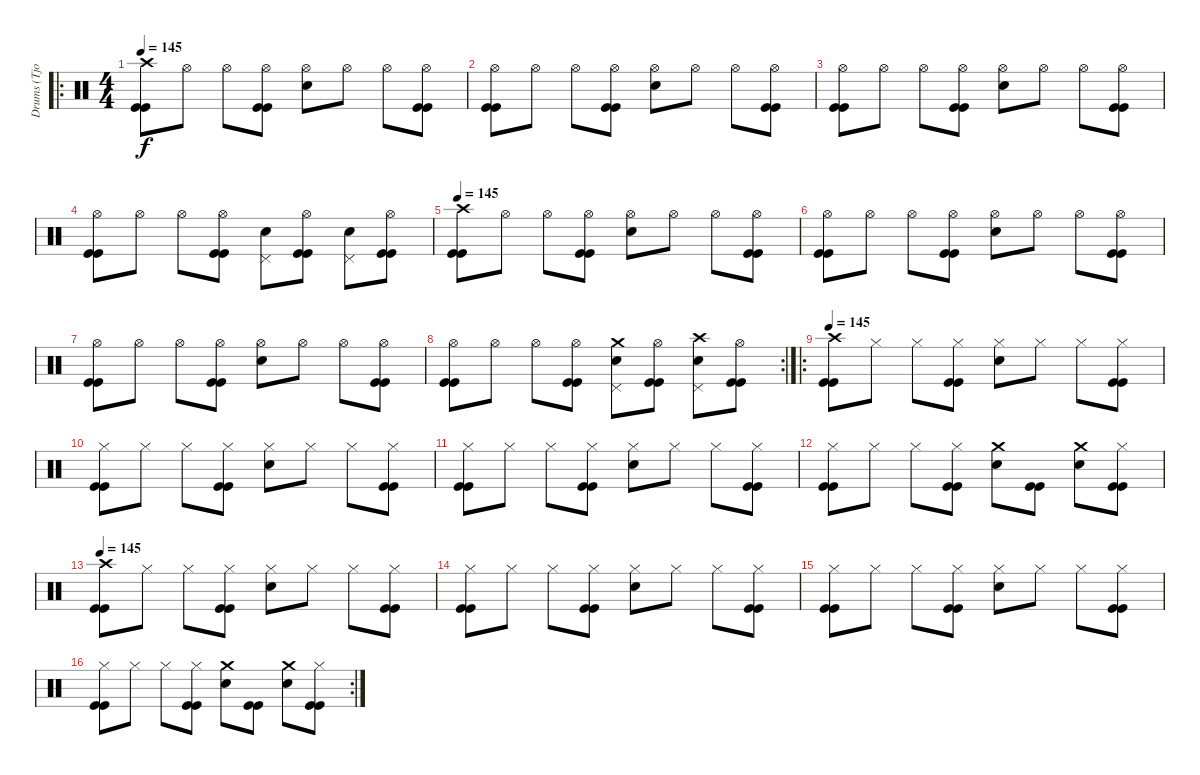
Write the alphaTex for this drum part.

\track ("Drums (Tjodalv)" "Drums (Tjo") {instrument percussion}
\staff {score}
\articulation defaults
\ro
\ts (4 4)
\tempo 145
\clef neutral
\ks c
("Crash high (hit)" "Kick (hit)" "Kick (hit)").8{dy f} "Hi-Hat (open)".8 "Hi-Hat (open)".8 ("Hi-Hat (open)" "Kick (hit)" "Kick (hit)").8 ("Snare (hit) 2" "Hi-Hat (open)").8 "Hi-Hat (open)".8 "Hi-Hat (open)".8 ("Hi-Hat (open)" "Kick (hit)" "Kick (hit)").8 |
("Hi-Hat (open)" "Kick (hit)" "Kick (hit)").8 "Hi-Hat (open)".8 "Hi-Hat (open)".8 ("Hi-Hat (open)" "Kick (hit)" "Kick (hit)").8 ("Snare (hit) 2" "Hi-Hat (open)").8 "Hi-Hat (open)".8 "Hi-Hat (open)".8 ("Hi-Hat (open)" "Kick (hit)" "Kick (hit)").8 |
("Hi-Hat (open)" "Kick (hit)" "Kick (hit)").8 "Hi-Hat (open)".8 "Hi-Hat (open)".8 ("Hi-Hat (open)" "Kick (hit)" "Kick (hit)").8 ("Snare (hit) 2" "Hi-Hat (open)").8 "Hi-Hat (open)".8 "Hi-Hat (open)".8 ("Hi-Hat (open)" "Kick (hit)" "Kick (hit)").8 |
("Hi-Hat (open)" "Kick (hit)" "Kick (hit)").8 "Hi-Hat (open)".8 "Hi-Hat (open)".8 ("Hi-Hat (open)" "Kick (hit)" "Kick (hit)").8 ("Snare (hit) 2" "Pedal Hi-Hat (hit)").8 ("Hi-Hat (open)" "Kick (hit)" "Kick (hit)").8 ("Snare (hit) 2" "Pedal Hi-Hat (hit)").8 ("Hi-Hat (open)" "Kick (hit)" "Kick (hit)").8 |
\tempo 145
("Crash high (hit)" "Kick (hit)" "Kick (hit)").8 "Hi-Hat (open)".8 "Hi-Hat (open)".8 ("Hi-Hat (open)" "Kick (hit)" "Kick (hit)").8 ("Snare (hit) 2" "Hi-Hat (open)").8 "Hi-Hat (open)".8 "Hi-Hat (open)".8 ("Hi-Hat (open)" "Kick (hit)" "Kick (hit)").8 |
("Hi-Hat (open)" "Kick (hit)" "Kick (hit)").8 "Hi-Hat (open)".8 "Hi-Hat (open)".8 ("Hi-Hat (open)" "Kick (hit)" "Kick (hit)").8 ("Snare (hit) 2" "Hi-Hat (open)").8 "Hi-Hat (open)".8 "Hi-Hat (open)".8 ("Hi-Hat (open)" "Kick (hit)" "Kick (hit)").8 |
("Hi-Hat (open)" "Kick (hit)" "Kick (hit)").8 "Hi-Hat (open)".8 "Hi-Hat (open)".8 ("Hi-Hat (open)" "Kick (hit)" "Kick (hit)").8 ("Snare (hit) 2" "Hi-Hat (open)").8 "Hi-Hat (open)".8 "Hi-Hat (open)".8 ("Hi-Hat (open)" "Kick (hit)" "Kick (hit)").8 |
\rc 2
("Hi-Hat (open)" "Kick (hit)" "Kick (hit)").8 "Hi-Hat (open)".8 "Hi-Hat (open)".8 ("Hi-Hat (open)" "Kick (hit)" "Kick (hit)").8 ("Crash medium (hit)" "Snare (hit) 2" "Pedal Hi-Hat (hit)").8 ("Hi-Hat (open)" "Kick (hit)" "Kick (hit)").8 ("Crash high (hit)" "Snare (hit) 2" "Pedal Hi-Hat (hit)").8 ("Hi-Hat (open)" "Kick (hit)" "Kick (hit)").8 |
\ro
\tempo 145
("Crash high (hit)" "Kick (hit)" "Kick (hit)").8 "Hi-Hat (closed)".8 "Hi-Hat (closed)".8 ("Hi-Hat (closed)" "Kick (hit)" "Kick (hit)").8 ("Snare (hit) 2" "Hi-Hat (closed)").8 "Hi-Hat (closed)".8 "Hi-Hat (closed)".8 ("Hi-Hat (closed)" "Kick (hit)" "Kick (hit)").8 |
("Hi-Hat (closed)" "Kick (hit)" "Kick (hit)").8 "Hi-Hat (closed)".8 "Hi-Hat (closed)".8 ("Hi-Hat (closed)" "Kick (hit)" "Kick (hit)").8 ("Snare (hit) 2" "Hi-Hat (closed)").8 "Hi-Hat (closed)".8 "Hi-Hat (closed)".8 ("Hi-Hat (closed)" "Kick (hit)" "Kick (hit)").8 |
("Hi-Hat (closed)" "Kick (hit)" "Kick (hit)").8 "Hi-Hat (closed)".8 "Hi-Hat (closed)".8 ("Hi-Hat (closed)" "Kick (hit)" "Kick (hit)").8 ("Snare (hit) 2" "Hi-Hat (closed)").8 "Hi-Hat (closed)".8 "Hi-Hat (closed)".8 ("Hi-Hat (closed)" "Kick (hit)" "Kick (hit)").8 |
("Hi-Hat (closed)" "Kick (hit)" "Kick (hit)").8 "Hi-Hat (closed)".8 "Hi-Hat (closed)".8 ("Hi-Hat (closed)" "Kick (hit)" "Kick (hit)").8 ("Crash medium (hit)" "Snare (hit) 2").8 ("Kick (hit)" "Kick (hit)").8 ("Crash medium (hit)" "Snare (hit) 2").8 ("Hi-Hat (closed)" "Kick (hit)" "Kick (hit)").8 |
\tempo 145
("Crash high (hit)" "Kick (hit)" "Kick (hit)").8 "Hi-Hat (closed)".8 "Hi-Hat (closed)".8 ("Hi-Hat (closed)" "Kick (hit)" "Kick (hit)").8 ("Snare (hit) 2" "Hi-Hat (closed)").8 "Hi-Hat (closed)".8 "Hi-Hat (closed)".8 ("Hi-Hat (closed)" "Kick (hit)" "Kick (hit)").8 |
("Hi-Hat (closed)" "Kick (hit)" "Kick (hit)").8 "Hi-Hat (closed)".8 "Hi-Hat (closed)".8 ("Hi-Hat (closed)" "Kick (hit)" "Kick (hit)").8 ("Snare (hit) 2" "Hi-Hat (closed)").8 "Hi-Hat (closed)".8 "Hi-Hat (closed)".8 ("Hi-Hat (closed)" "Kick (hit)" "Kick (hit)").8 |
("Hi-Hat (closed)" "Kick (hit)" "Kick (hit)").8 "Hi-Hat (closed)".8 "Hi-Hat (closed)".8 ("Hi-Hat (closed)" "Kick (hit)" "Kick (hit)").8 ("Snare (hit) 2" "Hi-Hat (closed)").8 "Hi-Hat (closed)".8 "Hi-Hat (closed)".8 ("Hi-Hat (closed)" "Kick (hit)" "Kick (hit)").8 |
\rc 2
("Hi-Hat (closed)" "Kick (hit)" "Kick (hit)").8 "Hi-Hat (closed)".8 "Hi-Hat (closed)".8 ("Hi-Hat (closed)" "Kick (hit)" "Kick (hit)").8 ("Crash medium (hit)" "Snare (hit) 2").8 ("Kick (hit)" "Kick (hit)").8 ("Crash medium (hit)" "Snare (hit) 2").8 ("Hi-Hat (closed)" "Kick (hit)" "Kick (hit)").8
